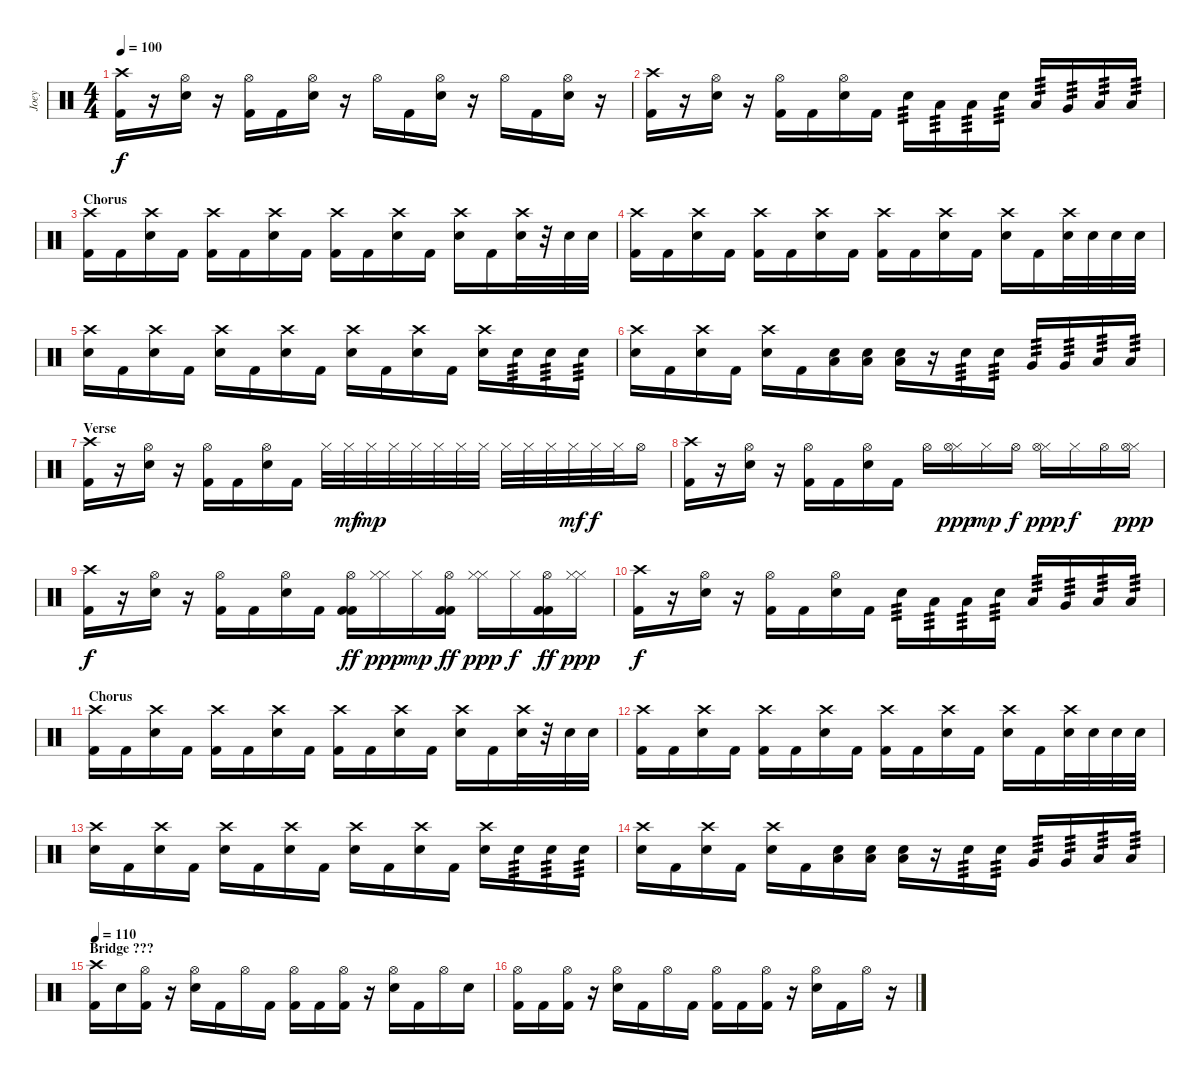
\track ("Joey" "Joey") {instrument percussion}
\staff {score}
\articulation defaults
\ts (4 4)
\tempo 100
\clef neutral
\ks c
("Crash high (hit)" "Kick (hit) 2").16{dy f} r.16 ("Hi-Hat (open)" "Electric Snare (hit)").16 r.16 ("Hi-Hat (open)" "Kick (hit) 2").16 "Kick (hit) 2".16 ("Hi-Hat (open)" "Electric Snare (hit)").16 r.16 "Hi-Hat (open)".16 "Kick (hit) 2".16 ("Hi-Hat (open)" "Electric Snare (hit)").16 r.16 "Hi-Hat (open)".16 "Kick (hit) 2".16 ("Hi-Hat (open)" "Electric Snare (hit)").16 r.16 |
("Crash high (hit)" "Kick (hit) 2").16 r.16 ("Hi-Hat (open)" "Electric Snare (hit)").16 r.16 ("Hi-Hat (open)" "Kick (hit) 2").16 "Kick (hit) 2".16 ("Hi-Hat (open)" "Electric Snare (hit)").16 "Kick (hit) 2".16 "Electric Snare (hit)".16{tp 3} "Low Tom (hit)".16{tp 3} "Low Tom (hit)".16{tp 3} "Electric Snare (hit)".16{tp 3} "Low Tom (hit)".16{tp 3} "Very Low Tom (hit)".16{tp 3} "Low Floor Tom (hit)".16{tp 3} "Low Floor Tom (hit)".16{tp 3} |
\section ("" "Chorus")
("Crash high (hit)" "Kick (hit) 2").16 "Kick (hit) 2".16 ("Crash high (hit)" "Electric Snare (hit)").16 "Kick (hit) 2".16 ("Crash high (hit)" "Kick (hit) 2").16 "Kick (hit) 2".16 ("Crash high (hit)" "Electric Snare (hit)").16 "Kick (hit) 2".16 ("Crash high (hit)" "Kick (hit) 2").16 "Kick (hit) 2".16 ("Crash high (hit)" "Electric Snare (hit)").16 "Kick (hit) 2".16 ("Crash high (hit)" "Electric Snare (hit)").16 "Kick (hit) 2".16 ("Crash high (hit)" "Electric Snare (hit)").32 r.32 "Electric Snare (hit)".32 "Electric Snare (hit)".32 |
("Crash high (hit)" "Kick (hit) 2").16 "Kick (hit) 2".16 ("Crash high (hit)" "Electric Snare (hit)").16 "Kick (hit) 2".16 ("Crash high (hit)" "Kick (hit) 2").16 "Kick (hit) 2".16 ("Crash high (hit)" "Electric Snare (hit)").16 "Kick (hit) 2".16 ("Crash high (hit)" "Kick (hit) 2").16 "Kick (hit) 2".16 ("Crash high (hit)" "Electric Snare (hit)").16 "Kick (hit) 2".16 ("Crash high (hit)" "Electric Snare (hit)").16 "Kick (hit) 2".16 ("Crash high (hit)" "Electric Snare (hit)").32 "Electric Snare (hit)".32 "Electric Snare (hit)".32 "Electric Snare (hit)".32 |
("Crash high (hit)" "Electric Snare (hit)").16 "Kick (hit) 2".16 ("Crash high (hit)" "Electric Snare (hit)").16 "Kick (hit) 2".16 ("Crash high (hit)" "Electric Snare (hit)").16 "Kick (hit) 2".16 ("Crash high (hit)" "Electric Snare (hit)").16 "Kick (hit) 2".16 ("Crash high (hit)" "Electric Snare (hit)").16 "Kick (hit) 2".16 ("Crash high (hit)" "Electric Snare (hit)").16 "Kick (hit) 2".16 ("Crash high (hit)" "Electric Snare (hit)").16 "Electric Snare (hit)".16{tp 3} "Electric Snare (hit)".16{tp 3} "Electric Snare (hit)".16{tp 3} |
("Crash high (hit)" "Electric Snare (hit)").16 "Kick (hit) 2".16 ("Crash high (hit)" "Electric Snare (hit)").16 "Kick (hit) 2".16 ("Crash high (hit)" "Electric Snare (hit)").16 "Kick (hit) 2".16 ("Low Floor Tom (hit)" "Electric Snare (hit)").16 ("Low Floor Tom (hit)" "Electric Snare (hit)").16 ("Low Floor Tom (hit)" "Electric Snare (hit)").16 r.16 "Electric Snare (hit)".16{tp 3} "Electric Snare (hit)".16{tp 3} "Very Low Tom (hit)".16{tp 3} "Very Low Tom (hit)".16{tp 3} "Low Floor Tom (hit)".16{tp 3} "Low Floor Tom (hit)".16{tp 3} |
\section ("" "Verse")
("Crash high (hit)" "Kick (hit) 2").16 r.16 ("Hi-Hat (open)" "Electric Snare (hit)").16 r.16 ("Hi-Hat (open)" "Kick (hit) 2").16 "Kick (hit) 2".16 ("Hi-Hat (open)" "Electric Snare (hit)").16 "Kick (hit) 2".16 "Hi-Hat (closed)".32 "Hi-Hat (closed)".32{dy mf} "Hi-Hat (closed)".32{dy mp} "Hi-Hat (closed)".32 "Hi-Hat (closed)".32 "Hi-Hat (closed)".32 "Hi-Hat (closed)".32 "Hi-Hat (closed)".32 "Hi-Hat (closed)".32 "Hi-Hat (closed)".32 "Hi-Hat (closed)".32 "Hi-Hat (closed)".32{dy mf} "Hi-Hat (closed)".32{dy f} "Hi-Hat (closed)".32 "Hi-Hat (open)".16 |
("Crash high (hit)" "Kick (hit) 2").16 r.16 ("Hi-Hat (open)" "Electric Snare (hit)").16 r.16 ("Hi-Hat (open)" "Kick (hit) 2").16 "Kick (hit) 2".16 ("Hi-Hat (open)" "Electric Snare (hit)").16 "Kick (hit) 2".16 "Hi-Hat (open)".16 ("Hi-Hat (closed)" "Hi-Hat (open)").16{dy ppp} "Hi-Hat (closed)".16{dy mp} "Hi-Hat (open)".16{dy f} ("Hi-Hat (closed)" "Hi-Hat (open)").16{dy ppp} "Hi-Hat (closed)".16{dy f} "Hi-Hat (open)".16 ("Hi-Hat (closed)" "Hi-Hat (open)").16{dy ppp} |
("Crash high (hit)" "Kick (hit) 2").16{dy f} r.16 ("Hi-Hat (open)" "Electric Snare (hit)").16 r.16 ("Hi-Hat (open)" "Kick (hit) 2").16 "Kick (hit) 2".16 ("Hi-Hat (open)" "Electric Snare (hit)").16 "Kick (hit) 2".16 ("Hi-Hat (open)" "Kick (hit) 2" "Kick (hit) 2").16{dy ff} ("Hi-Hat (closed)" "Hi-Hat (closed)").16{dy ppp} "Hi-Hat (closed)".16{dy mp} ("Hi-Hat (open)" "Kick (hit) 2" "Kick (hit) 2").16{dy ff} ("Hi-Hat (closed)" "Hi-Hat (closed)").16{dy ppp} "Hi-Hat (closed)".16{dy f} ("Hi-Hat (open)" "Kick (hit) 2" "Kick (hit) 2").16{dy ff} ("Hi-Hat (closed)" "Hi-Hat (closed)").16{dy ppp} |
("Crash high (hit)" "Kick (hit) 2").16{dy f} r.16 ("Hi-Hat (open)" "Electric Snare (hit)").16 r.16 ("Hi-Hat (open)" "Kick (hit) 2").16 "Kick (hit) 2".16 ("Hi-Hat (open)" "Electric Snare (hit)").16 "Kick (hit) 2".16 "Electric Snare (hit)".16{tp 3} "Low Tom (hit)".16{tp 3} "Low Tom (hit)".16{tp 3} "Electric Snare (hit)".16{tp 3} "Low Tom (hit)".16{tp 3} "Very Low Tom (hit)".16{tp 3} "Low Floor Tom (hit)".16{tp 3} "Low Floor Tom (hit)".16{tp 3} |
\section ("" "Chorus")
("Crash high (hit)" "Kick (hit) 2").16 "Kick (hit) 2".16 ("Crash high (hit)" "Electric Snare (hit)").16 "Kick (hit) 2".16 ("Crash high (hit)" "Kick (hit) 2").16 "Kick (hit) 2".16 ("Crash high (hit)" "Electric Snare (hit)").16 "Kick (hit) 2".16 ("Crash high (hit)" "Kick (hit) 2").16 "Kick (hit) 2".16 ("Crash high (hit)" "Electric Snare (hit)").16 "Kick (hit) 2".16 ("Crash high (hit)" "Electric Snare (hit)").16 "Kick (hit) 2".16 ("Crash high (hit)" "Electric Snare (hit)").32 r.32 "Electric Snare (hit)".32 "Electric Snare (hit)".32 |
("Crash high (hit)" "Kick (hit) 2").16 "Kick (hit) 2".16 ("Crash high (hit)" "Electric Snare (hit)").16 "Kick (hit) 2".16 ("Crash high (hit)" "Kick (hit) 2").16 "Kick (hit) 2".16 ("Crash high (hit)" "Electric Snare (hit)").16 "Kick (hit) 2".16 ("Crash high (hit)" "Kick (hit) 2").16 "Kick (hit) 2".16 ("Crash high (hit)" "Electric Snare (hit)").16 "Kick (hit) 2".16 ("Crash high (hit)" "Electric Snare (hit)").16 "Kick (hit) 2".16 ("Crash high (hit)" "Electric Snare (hit)").32 "Electric Snare (hit)".32 "Electric Snare (hit)".32 "Electric Snare (hit)".32 |
("Crash high (hit)" "Electric Snare (hit)").16 "Kick (hit) 2".16 ("Crash high (hit)" "Electric Snare (hit)").16 "Kick (hit) 2".16 ("Crash high (hit)" "Electric Snare (hit)").16 "Kick (hit) 2".16 ("Crash high (hit)" "Electric Snare (hit)").16 "Kick (hit) 2".16 ("Crash high (hit)" "Electric Snare (hit)").16 "Kick (hit) 2".16 ("Crash high (hit)" "Electric Snare (hit)").16 "Kick (hit) 2".16 ("Crash high (hit)" "Electric Snare (hit)").16 "Electric Snare (hit)".16{tp 3} "Electric Snare (hit)".16{tp 3} "Electric Snare (hit)".16{tp 3} |
("Crash high (hit)" "Electric Snare (hit)").16 "Kick (hit) 2".16 ("Crash high (hit)" "Electric Snare (hit)").16 "Kick (hit) 2".16 ("Crash high (hit)" "Electric Snare (hit)").16 "Kick (hit) 2".16 ("Low Floor Tom (hit)" "Electric Snare (hit)").16 ("Low Floor Tom (hit)" "Electric Snare (hit)").16 ("Low Floor Tom (hit)" "Electric Snare (hit)").16 r.16 "Electric Snare (hit)".16{tp 3} "Electric Snare (hit)".16{tp 3} "Very Low Tom (hit)".16{tp 3} "Very Low Tom (hit)".16{tp 3} "Low Floor Tom (hit)".16{tp 3} "Low Floor Tom (hit)".16{tp 3} |
\section ("" "Bridge ???")
\tempo 110
("Crash high (hit)" "Kick (hit) 2").16 "Electric Snare (hit)".16 ("Hi-Hat (open)" "Kick (hit) 2").16 r.16 ("Hi-Hat (open)" "Electric Snare (hit)").16 "Kick (hit) 2".16 "Hi-Hat (open)".16 "Kick (hit) 2".16 ("Hi-Hat (open)" "Kick (hit) 2").16 "Kick (hit) 2".16 ("Hi-Hat (open)" "Kick (hit) 2").16 r.16 ("Hi-Hat (open)" "Electric Snare (hit)").16 "Kick (hit) 2".16 "Hi-Hat (open)".16 "Electric Snare (hit)".16 |
("Hi-Hat (open)" "Kick (hit) 2").16 "Kick (hit) 2".16 ("Hi-Hat (open)" "Kick (hit) 2").16 r.16 ("Hi-Hat (open)" "Electric Snare (hit)").16 "Kick (hit) 2".16 "Hi-Hat (open)".16 "Kick (hit) 2".16 ("Hi-Hat (open)" "Kick (hit) 2").16 "Kick (hit) 2".16 ("Hi-Hat (open)" "Kick (hit) 2").16 r.16 ("Hi-Hat (open)" "Electric Snare (hit)").16 "Kick (hit) 2".16 "Hi-Hat (open)".16 r.16
